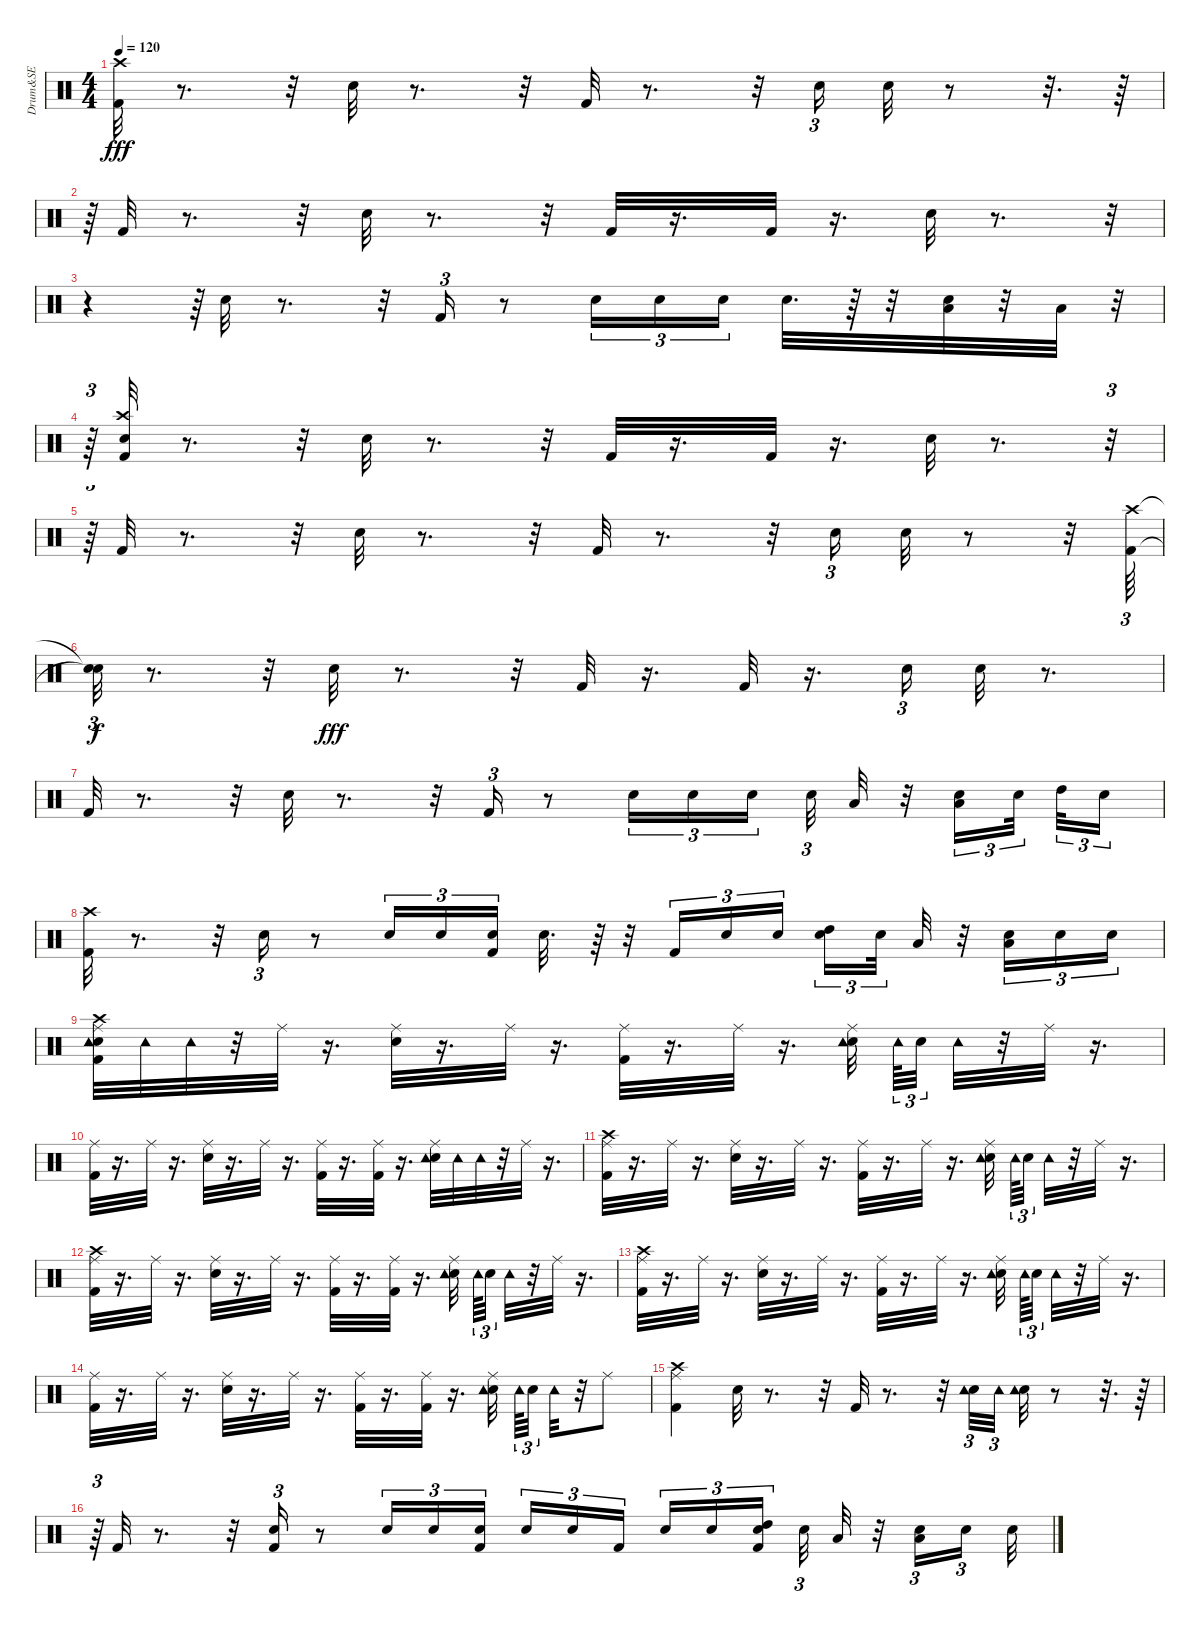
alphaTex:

\track ("Drum&SE" "Drum&SE") {instrument percussion}
\staff {score}
\articulation defaults
\ts (4 4)
\tempo 120
\clef neutral
\ks c
("Kick (hit) 2" "Crash high (hit)").32{dy fff} r.8{d} r.32 "Snare (hit) 2".32 r.8{d} r.32 "Kick (hit) 2".32 r.8{d} r.32 "Snare (hit) 2".16{tu (3 2)} "Snare (hit) 2".32 r.8 r.32{d} r.64 |
r.64{tu (3 2)} "Kick (hit) 2".32 r.8{d} r.32 "Snare (hit) 2".32 r.8{d} r.32 "Kick (hit) 2".32 r.16{d} "Kick (hit) 2".32 r.16{d} "Snare (hit) 2".32 r.8{d} r.32{tu (3 2)} |
r.4 r.64{tu (3 2)} "Snare (hit) 2".32 r.8{d} r.32 "Kick (hit) 2".16{tu (3 2)} r.8 "Snare (hit) 2".16{tu (3 2)} "Snare (hit) 2".16{tu (3 2)} "Snare (hit) 2".16{tu (3 2)} "Snare (hit) 2".32{d} r.64 r.32 ("Snare (hit) 2" "Low Floor Tom (hit)").32 r.32 "Low Tom (hit)".32 r.32{tu (3 2)} |
r.64{tu (3 2)} ("Kick (hit) 2" "Snare (hit) 2" "Crash high (hit)").32 r.8{d} r.32 "Snare (hit) 2".32 r.8{d} r.32 "Kick (hit) 2".32 r.16{d} "Kick (hit) 2".32 r.16{d} "Snare (hit) 2".32 r.8{d} r.32{tu (3 2)} |
r.64{tu (3 2)} "Kick (hit) 2".32 r.8{d} r.32 "Snare (hit) 2".32 r.8{d} r.32 "Kick (hit) 2".32 r.8{d} r.32 "Snare (hit) 2".16{tu (3 2)} "Snare (hit) 2".32 r.8 r.32 ("Kick (hit) 2" "Crash high (hit)").64{tu (3 2)} |
("Snare (hit)"{t} "Snare (hit)"{t}).32{tu (3 2) dy f} r.8{d} r.32 "Snare (hit) 2".32{dy fff} r.8{d} r.32 "Kick (hit) 2".32 r.16{d} "Kick (hit) 2".32 r.16{d} "Snare (hit) 2".16{tu (3 2)} "Snare (hit) 2".32 r.8{d} |
"Kick (hit) 2".32 r.8{d} r.32 "Snare (hit) 2".32 r.8{d} r.32 "Kick (hit) 2".16{tu (3 2)} r.8 "Snare (hit) 2".16{tu (3 2)} "Snare (hit) 2".16{tu (3 2)} "Snare (hit) 2".16{tu (3 2)} "Snare (hit) 2".32{tu (3 2)} "Low Floor Tom (hit)".32 r.32 ("Snare (hit) 2" "Low Tom (hit)").16{tu (3 2)} "Snare (hit) 2".32{tu (3 2)} "High Tom (hit)".32{tu (3 2)} "Snare (hit) 2".16{tu (3 2)} |
("Kick (hit) 2" "Crash high (hit)").32 r.8{d} r.32 "Snare (hit) 2".16{tu (3 2)} r.8 "Snare (hit) 2".16{tu (3 2)} "Snare (hit) 2".16{tu (3 2)} ("Kick (hit) 2" "Snare (hit) 2").16{tu (3 2)} "Snare (hit) 2".32{d} r.64 r.32 "Kick (hit) 2".16{tu (3 2)} "Snare (hit) 2".16{tu (3 2)} "Snare (hit) 2".16{tu (3 2)} ("Snare (hit) 2" "High Tom (hit)").16{tu (3 2)} "Snare (hit) 2".32{tu (3 2)} "Low Tom (hit)".32 r.32 ("Snare (hit) 2" "Low Floor Tom (hit)").16{tu (3 2)} "Snare (hit) 2".16{tu (3 2)} "Snare (hit) 2".16{tu (3 2)} |
("Snare (hit) 2" "Kick (hit) 2" "Crash high (hit)" "Ride (middle)" "Tambourine (hit)").32 "Tambourine (hit)".32 "Tambourine (hit)".32 r.32 "Ride (middle)".32 r.16{d} ("Snare (hit) 2" "Ride (middle)").32 r.16{d} "Ride (middle)".32 r.16{d} ("Kick (hit) 2" "Ride (middle)").32 r.16{d} "Ride (middle)".32 r.16{d} ("Snare (hit) 2" "Ride (middle)" "Tambourine (hit)").32 "Tambourine (hit)".64{tu (3 2)} "Snare (hit) 2".32{tu (3 2)} "Tambourine (hit)".32 r.32 "Ride (middle)".32 r.16{d} |
("Kick (hit) 2" "Ride (middle)").32 r.16{d} "Ride (middle)".32 r.16{d} ("Snare (hit) 2" "Ride (middle)").32 r.16{d} "Ride (middle)".32 r.16{d} ("Kick (hit) 2" "Ride (middle)").32 r.16{d} ("Kick (hit) 2" "Ride (middle)").32 r.16{d} ("Snare (hit) 2" "Ride (middle)" "Tambourine (hit)").32 "Tambourine (hit)".32 "Tambourine (hit)".32 r.32 "Ride (middle)".32 r.16{d} |
("Kick (hit) 2" "Crash high (hit)" "Ride (middle)").32 r.16{d} "Ride (middle)".32 r.16{d} ("Snare (hit) 2" "Ride (middle)").32 r.16{d} "Ride (middle)".32 r.16{d} ("Kick (hit) 2" "Ride (middle)").32 r.16{d} "Ride (middle)".32 r.16{d} ("Snare (hit) 2" "Ride (middle)" "Tambourine (hit)").32 "Tambourine (hit)".64{tu (3 2)} "Snare (hit) 2".32{tu (3 2)} "Tambourine (hit)".32 r.32 "Ride (middle)".32 r.16{d} |
("Kick (hit) 2" "Crash high (hit)" "Ride (middle)").32 r.16{d} "Ride (middle)".32 r.16{d} ("Snare (hit) 2" "Ride (middle)").32 r.16{d} "Ride (middle)".32 r.16{d} ("Kick (hit) 2" "Ride (middle)").32 r.16{d} ("Kick (hit) 2" "Ride (middle)").32 r.16{d} ("Snare (hit) 2" "Ride (middle)" "Tambourine (hit)").32 "Tambourine (hit)".64{tu (3 2)} "Snare (hit) 2".32{tu (3 2)} "Tambourine (hit)".32 r.32 "Ride (middle)".32 r.16{d} |
("Kick (hit) 2" "Crash high (hit)" "Ride (middle)").32 r.16{d} "Ride (middle)".32 r.16{d} ("Snare (hit) 2" "Ride (middle)").32 r.16{d} "Ride (middle)".32 r.16{d} ("Kick (hit) 2" "Ride (middle)").32 r.16{d} "Ride (middle)".32 r.16{d} ("Snare (hit) 2" "Ride (middle)" "Tambourine (hit)").32 "Tambourine (hit)".64{tu (3 2)} "Snare (hit) 2".32{tu (3 2)} "Tambourine (hit)".32 r.32 "Ride (middle)".32 r.16{d} |
("Kick (hit) 2" "Ride (middle)").32 r.16{d} "Ride (middle)".32 r.16{d} ("Snare (hit) 2" "Ride (middle)").32 r.16{d} "Ride (middle)".32 r.16{d} ("Kick (hit) 2" "Ride (middle)").32 r.16{d} ("Kick (hit) 2" "Ride (middle)").32 r.16{d} ("Snare (hit) 2" "Ride (middle)" "Tambourine (hit)").32 "Tambourine (hit)".64{tu (3 2)} "Snare (hit) 2".32{tu (3 2)} "Tambourine (hit)".32 r.32 "Ride (middle)".8 |
("Kick (hit) 2" "Crash high (hit)" "Ride (middle)").4 "Snare (hit) 2".32 r.8{d} r.32 "Kick (hit) 2".32 r.8{d} r.32 ("Snare (hit) 2" "Tambourine (hit)").32{tu (3 2)} "Tambourine (hit)".32{tu (3 2)} ("Snare (hit) 2" "Tambourine (hit)").32 r.8 r.32{d} r.64 |
r.64{tu (3 2)} "Kick (hit) 2".32 r.8{d} r.32 ("Kick (hit) 2" "Snare (hit) 2").16{tu (3 2)} r.8 "Snare (hit) 2".16{tu (3 2)} "Snare (hit) 2".16{tu (3 2)} ("Kick (hit) 2" "Snare (hit) 2").16{tu (3 2)} "Snare (hit) 2".16{tu (3 2)} "Snare (hit) 2".16{tu (3 2)} "Kick (hit) 2".16{tu (3 2)} "Snare (hit) 2".16{tu (3 2)} "Snare (hit) 2".16{tu (3 2)} ("Kick (hit) 2" "Snare (hit) 2" "High Tom (hit)").16{tu (3 2)} "Snare (hit) 2".32{tu (3 2)} "Low Tom (hit)".32 r.32 ("Snare (hit) 2" "Low Floor Tom (hit)").16{tu (3 2)} "Snare (hit) 2".16{tu (3 2)} "Snare (hit) 2".32
